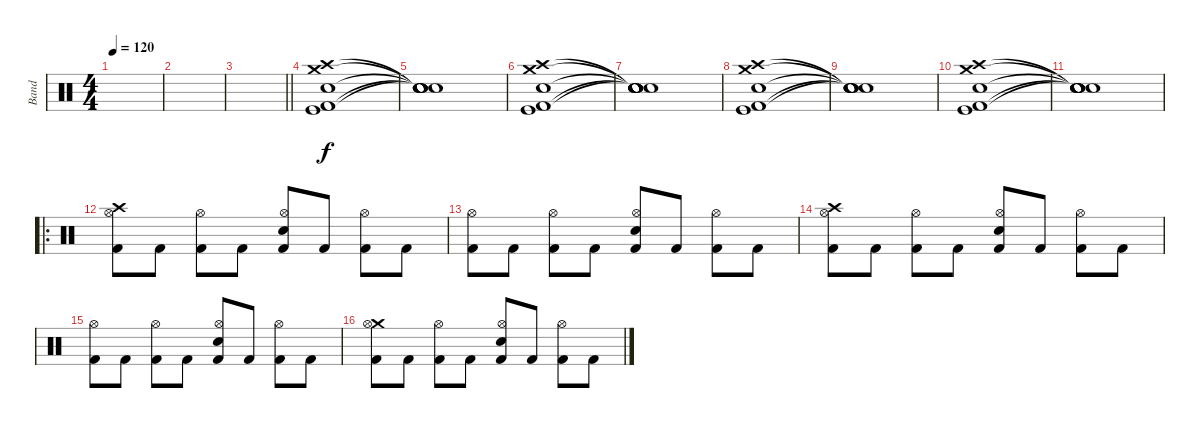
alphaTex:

\track ("Band" "Band") {instrument percussion}
\staff {score}
\articulation defaults
\ts (4 4)
\tempo 120
\clef neutral
\ks c
|
|
\barLineRight lightlight
|
("Crash high (hit)" "Crash medium (hit)" "Snare (hit)" "Kick (hit)" "Kick (hit) 2").1 |
("Snare (hit)"{t} "Snare (hit)"{t} "Snare (hit)"{t} "Snare (hit)"{t} "Snare (hit)"{t}).1 |
("Crash high (hit)" "Crash medium (hit)" "Snare (hit)" "Kick (hit)" "Kick (hit) 2").1 |
("Snare (hit)"{t} "Snare (hit)"{t} "Snare (hit)"{t} "Snare (hit)"{t} "Snare (hit)"{t}).1 |
("Crash high (hit)" "Crash medium (hit)" "Snare (hit)" "Kick (hit)" "Kick (hit) 2").1 |
("Snare (hit)"{t} "Snare (hit)"{t} "Snare (hit)"{t} "Snare (hit)"{t} "Snare (hit)"{t}).1 |
("Crash high (hit)" "Crash medium (hit)" "Snare (hit)" "Kick (hit)" "Kick (hit) 2").1 |
("Snare (hit)"{t} "Snare (hit)"{t} "Snare (hit)"{t} "Snare (hit)"{t} "Snare (hit)"{t}).1 |
\ro
("Crash high (hit)" "Hi-Hat (open)" "Kick (hit) 2").8 "Kick (hit) 2".8 ("Hi-Hat (open)" "Kick (hit) 2").8 "Kick (hit) 2".8 ("Electric Snare (hit)" "Hi-Hat (open)" "Kick (hit) 2").8 "Kick (hit) 2".8 ("Hi-Hat (open)" "Kick (hit) 2").8 "Kick (hit) 2".8 |
("Hi-Hat (open)" "Kick (hit) 2").8 "Kick (hit) 2".8 ("Hi-Hat (open)" "Kick (hit) 2").8 "Kick (hit) 2".8 ("Electric Snare (hit)" "Hi-Hat (open)" "Kick (hit) 2").8 "Kick (hit) 2".8 ("Hi-Hat (open)" "Kick (hit) 2").8 "Kick (hit) 2".8 |
("Crash high (hit)" "Hi-Hat (open)" "Kick (hit) 2").8 "Kick (hit) 2".8 ("Hi-Hat (open)" "Kick (hit) 2").8 "Kick (hit) 2".8 ("Electric Snare (hit)" "Hi-Hat (open)" "Kick (hit) 2").8 "Kick (hit) 2".8 ("Hi-Hat (open)" "Kick (hit) 2").8 "Kick (hit) 2".8 |
("Hi-Hat (open)" "Kick (hit) 2").8 "Kick (hit) 2".8 ("Hi-Hat (open)" "Kick (hit) 2").8 "Kick (hit) 2".8 ("Electric Snare (hit)" "Hi-Hat (open)" "Kick (hit) 2").8 "Kick (hit) 2".8 ("Hi-Hat (open)" "Kick (hit) 2").8 "Kick (hit) 2".8 |
("Crash medium (hit)" "Hi-Hat (open)" "Kick (hit) 2").8 "Kick (hit) 2".8 ("Hi-Hat (open)" "Kick (hit) 2").8 "Kick (hit) 2".8 ("Electric Snare (hit)" "Hi-Hat (open)" "Kick (hit) 2").8 "Kick (hit) 2".8 ("Hi-Hat (open)" "Kick (hit) 2").8 "Kick (hit) 2".8
